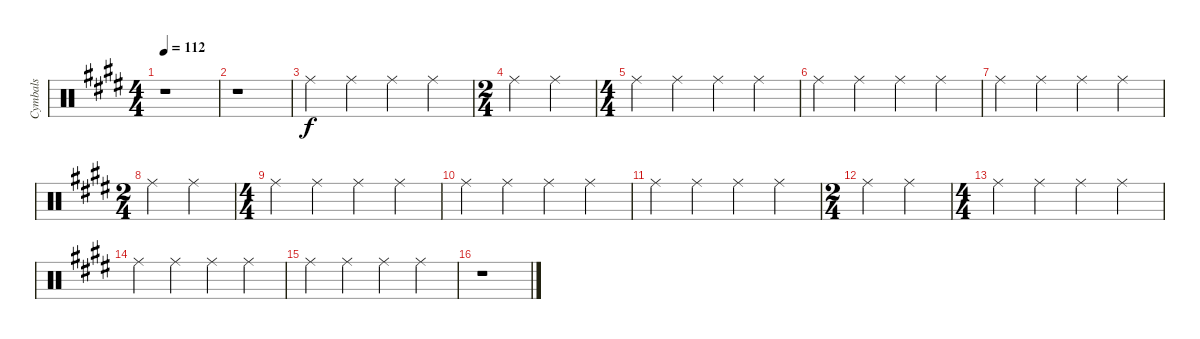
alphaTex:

\track ("Cymbals" "Cymbals") {instrument percussion}
\staff {score}
\articulation defaults
\ts (4 4)
\tempo 112
\clef neutral
\ks e
r.1{dy f} |
r.1 |
"Ride (middle)".4 "Ride (middle)".4 "Ride (middle)".4 "Ride (middle)".4 |
\ts (2 4)
"Ride (middle)".4 "Ride (middle)".4 |
\ts (4 4)
"Ride (middle)".4 "Ride (middle)".4 "Ride (middle)".4 "Ride (middle)".4 |
"Ride (middle)".4 "Ride (middle)".4 "Ride (middle)".4 "Ride (middle)".4 |
"Ride (middle)".4 "Ride (middle)".4 "Ride (middle)".4 "Ride (middle)".4 |
\ts (2 4)
"Ride (middle)".4 "Ride (middle)".4 |
\ts (4 4)
"Ride (middle)".4 "Ride (middle)".4 "Ride (middle)".4 "Ride (middle)".4 |
"Ride (middle)".4 "Ride (middle)".4 "Ride (middle)".4 "Ride (middle)".4 |
"Ride (middle)".4 "Ride (middle)".4 "Ride (middle)".4 "Ride (middle)".4 |
\ts (2 4)
"Ride (middle)".4 "Ride (middle)".4 |
\ts (4 4)
"Ride (middle)".4 "Ride (middle)".4 "Ride (middle)".4 "Ride (middle)".4 |
"Ride (middle)".4 "Ride (middle)".4 "Ride (middle)".4 "Ride (middle)".4 |
"Ride (middle)".4 "Ride (middle)".4 "Ride (middle)".4 "Ride (middle)".4 |
r.1
